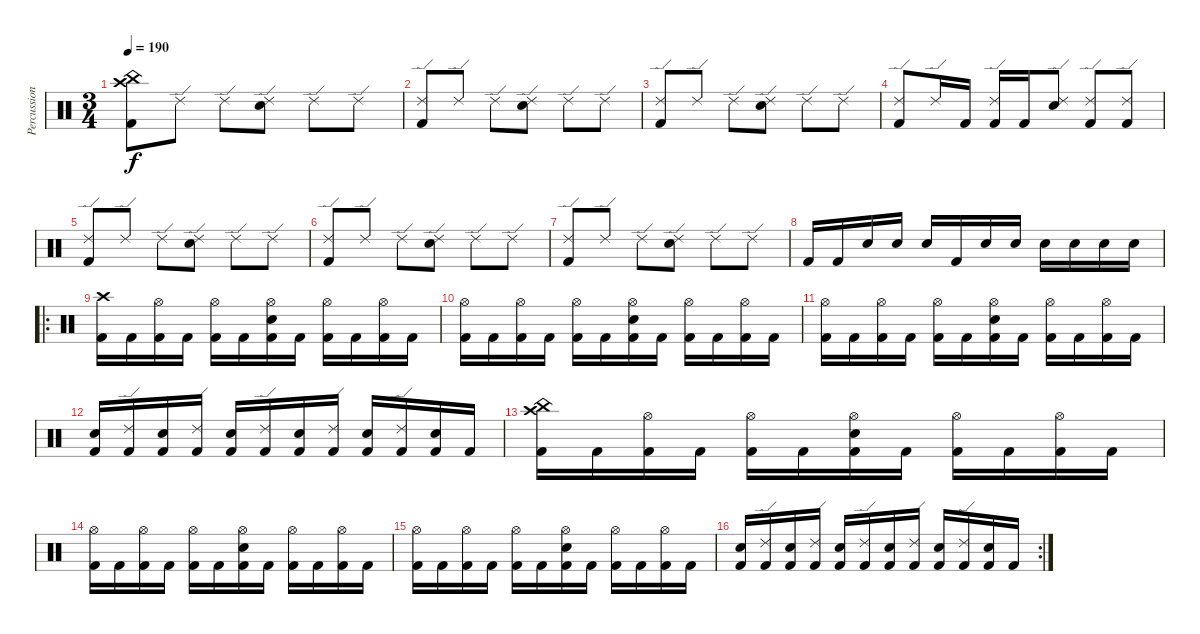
\track ("Percussion" "Percussion") {instrument percussion}
\staff {score}
\articulation defaults
\ts (3 4)
\tempo 190
\clef neutral
\ks c
("China (hit)" "Crash high (hit)" "Kick (hit) 2").8{dy f} "Ride (edge) 2".8 "Ride (edge) 2".8 ("Ride (edge) 2" "Electric Snare (hit)").8 "Ride (edge) 2".8 "Ride (edge) 2".8 |
("Ride (edge) 2" "Kick (hit) 2").8 "Ride (edge) 2".8 "Ride (edge) 2".8 ("Ride (edge) 2" "Electric Snare (hit)").8 "Ride (edge) 2".8 "Ride (edge) 2".8 |
("Ride (edge) 2" "Kick (hit) 2").8 "Ride (edge) 2".8 "Ride (edge) 2".8 ("Ride (edge) 2" "Electric Snare (hit)").8 "Ride (edge) 2".8 "Ride (edge) 2".8 |
("Ride (edge) 2" "Kick (hit) 2").8 "Ride (edge) 2".16 "Kick (hit) 2".16 ("Ride (edge) 2" "Kick (hit) 2").16 "Kick (hit) 2".16 ("Ride (edge) 2" "Electric Snare (hit)").8 ("Ride (edge) 2" "Kick (hit) 2").8 ("Ride (edge) 2" "Kick (hit) 2").8 |
("Ride (edge) 2" "Kick (hit) 2").8 "Ride (edge) 2".8 "Ride (edge) 2".8 ("Ride (edge) 2" "Electric Snare (hit)").8 "Ride (edge) 2".8 "Ride (edge) 2".8 |
("Ride (edge) 2" "Kick (hit) 2").8 "Ride (edge) 2".8 "Ride (edge) 2".8 ("Ride (edge) 2" "Electric Snare (hit)").8 "Ride (edge) 2".8 "Ride (edge) 2".8 |
("Ride (edge) 2" "Kick (hit) 2").8 "Ride (edge) 2".8 "Ride (edge) 2".8 ("Ride (edge) 2" "Electric Snare (hit)").8 "Ride (edge) 2".8 "Ride (edge) 2".8 |
"Kick (hit) 2".16 "Kick (hit) 2".16 "Electric Snare (hit)".16 "Electric Snare (hit)".16 "Electric Snare (hit)".16 "Kick (hit) 2".16 "Electric Snare (hit)".16 "Electric Snare (hit)".16 "Electric Snare (hit)".16 "Electric Snare (hit)".16 "Electric Snare (hit)".16 "Electric Snare (hit)".16 |
\ro
("Crash high (hit)" "Kick (hit) 2").16 "Kick (hit) 2".16 ("Hi-Hat (open)" "Kick (hit) 2").16 "Kick (hit) 2".16 ("Hi-Hat (open)" "Kick (hit) 2").16 "Kick (hit) 2".16 ("Hi-Hat (open)" "Electric Snare (hit)" "Kick (hit) 2").16 "Kick (hit) 2".16 ("Hi-Hat (open)" "Kick (hit) 2").16 "Kick (hit) 2".16 ("Hi-Hat (open)" "Kick (hit) 2").16 "Kick (hit) 2".16 |
("Hi-Hat (open)" "Kick (hit) 2").16 "Kick (hit) 2".16 ("Hi-Hat (open)" "Kick (hit) 2").16 "Kick (hit) 2".16 ("Hi-Hat (open)" "Kick (hit) 2").16 "Kick (hit) 2".16 ("Hi-Hat (open)" "Electric Snare (hit)" "Kick (hit) 2").16 "Kick (hit) 2".16 ("Hi-Hat (open)" "Kick (hit) 2").16 "Kick (hit) 2".16 ("Hi-Hat (open)" "Kick (hit) 2").16 "Kick (hit) 2".16 |
("Hi-Hat (open)" "Kick (hit) 2").16 "Kick (hit) 2".16 ("Hi-Hat (open)" "Kick (hit) 2").16 "Kick (hit) 2".16 ("Hi-Hat (open)" "Kick (hit) 2").16 "Kick (hit) 2".16 ("Hi-Hat (open)" "Electric Snare (hit)" "Kick (hit) 2").16 "Kick (hit) 2".16 ("Hi-Hat (open)" "Kick (hit) 2").16 "Kick (hit) 2".16 ("Hi-Hat (open)" "Kick (hit) 2").16 "Kick (hit) 2".16 |
("Electric Snare (hit)" "Kick (hit) 2").16 ("Ride (edge) 2" "Kick (hit) 2").16 ("Electric Snare (hit)" "Kick (hit) 2").16 ("Ride (edge) 2" "Kick (hit) 2").16 ("Electric Snare (hit)" "Kick (hit) 2").16 ("Ride (edge) 2" "Kick (hit) 2").16 ("Electric Snare (hit)" "Kick (hit) 2").16 ("Ride (edge) 2" "Kick (hit) 2").16 ("Electric Snare (hit)" "Kick (hit) 2").16 ("Ride (edge) 2" "Kick (hit) 2").16 ("Electric Snare (hit)" "Kick (hit) 2").16 "Kick (hit) 2".16 |
("Crash high (hit)" "China (hit)" "Kick (hit) 2").16 "Kick (hit) 2".16 ("Hi-Hat (open)" "Kick (hit) 2").16 "Kick (hit) 2".16 ("Hi-Hat (open)" "Kick (hit) 2").16 "Kick (hit) 2".16 ("Hi-Hat (open)" "Electric Snare (hit)" "Kick (hit) 2").16 "Kick (hit) 2".16 ("Hi-Hat (open)" "Kick (hit) 2").16 "Kick (hit) 2".16 ("Hi-Hat (open)" "Kick (hit) 2").16 "Kick (hit) 2".16 |
("Hi-Hat (open)" "Kick (hit) 2").16 "Kick (hit) 2".16 ("Hi-Hat (open)" "Kick (hit) 2").16 "Kick (hit) 2".16 ("Hi-Hat (open)" "Kick (hit) 2").16 "Kick (hit) 2".16 ("Hi-Hat (open)" "Electric Snare (hit)" "Kick (hit) 2").16 "Kick (hit) 2".16 ("Hi-Hat (open)" "Kick (hit) 2").16 "Kick (hit) 2".16 ("Hi-Hat (open)" "Kick (hit) 2").16 "Kick (hit) 2".16 |
("Hi-Hat (open)" "Kick (hit) 2").16 "Kick (hit) 2".16 ("Hi-Hat (open)" "Kick (hit) 2").16 "Kick (hit) 2".16 ("Hi-Hat (open)" "Kick (hit) 2").16 "Kick (hit) 2".16 ("Hi-Hat (open)" "Electric Snare (hit)" "Kick (hit) 2").16 "Kick (hit) 2".16 ("Hi-Hat (open)" "Kick (hit) 2").16 "Kick (hit) 2".16 ("Hi-Hat (open)" "Kick (hit) 2").16 "Kick (hit) 2".16 |
\rc 2
("Electric Snare (hit)" "Kick (hit) 2").16 ("Ride (edge) 2" "Kick (hit) 2").16 ("Electric Snare (hit)" "Kick (hit) 2").16 ("Ride (edge) 2" "Kick (hit) 2").16 ("Electric Snare (hit)" "Kick (hit) 2").16 ("Ride (edge) 2" "Kick (hit) 2").16 ("Electric Snare (hit)" "Kick (hit) 2").16 ("Ride (edge) 2" "Kick (hit) 2").16 ("Electric Snare (hit)" "Kick (hit) 2").16 ("Ride (edge) 2" "Kick (hit) 2").16 ("Electric Snare (hit)" "Kick (hit) 2").16 "Kick (hit) 2".16
